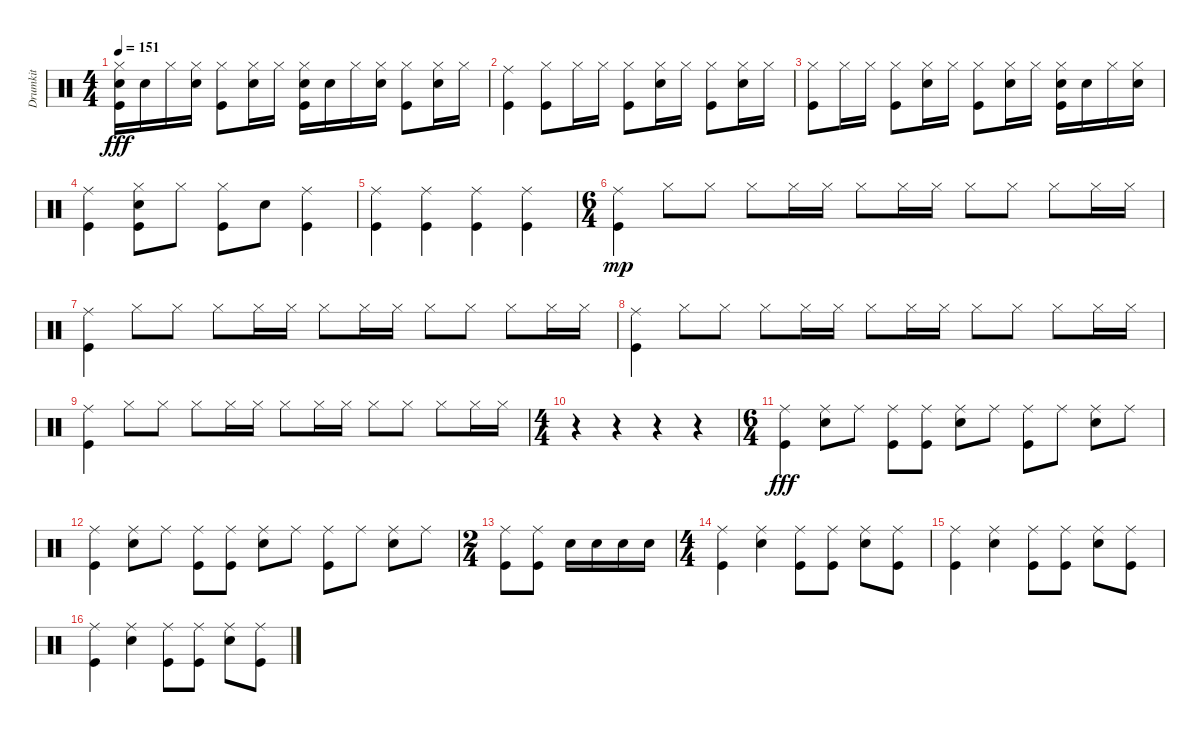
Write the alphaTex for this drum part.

\track ("Drumkit" "Drumkit") {instrument percussion}
\staff {score}
\articulation defaults
\ts (4 4)
\tempo 151
\clef neutral
\ks c
("Hi-Hat (closed)" "Kick (hit)" "Snare (hit) 2").16{dy fff} "Snare (hit) 2".16 "Hi-Hat (closed)".16 ("Hi-Hat (closed)" "Snare (hit) 2").16 ("Hi-Hat (closed)" "Kick (hit)").8 ("Snare (hit) 2" "Hi-Hat (closed)").16 "Hi-Hat (closed)".16 ("Hi-Hat (closed)" "Kick (hit)" "Snare (hit) 2").16 "Snare (hit) 2".16 "Hi-Hat (closed)".16 ("Hi-Hat (closed)" "Snare (hit) 2").16 ("Hi-Hat (closed)" "Kick (hit)").8 ("Snare (hit) 2" "Hi-Hat (closed)").16 "Hi-Hat (closed)".16 |
("Kick (hit)" "Ride (middle)").4 ("Hi-Hat (closed)" "Kick (hit)").8 "Hi-Hat (closed)".16 "Hi-Hat (closed)".16 ("Hi-Hat (closed)" "Kick (hit)").8 ("Snare (hit) 2" "Hi-Hat (closed)").16 "Hi-Hat (closed)".16 ("Hi-Hat (closed)" "Kick (hit)").8 ("Snare (hit) 2" "Hi-Hat (closed)").16 "Hi-Hat (closed)".16 |
("Hi-Hat (closed)" "Kick (hit)").8 "Hi-Hat (closed)".16 "Hi-Hat (closed)".16 ("Hi-Hat (closed)" "Kick (hit)").8 ("Snare (hit) 2" "Hi-Hat (closed)").16 "Hi-Hat (closed)".16 ("Hi-Hat (closed)" "Kick (hit)").8 ("Snare (hit) 2" "Hi-Hat (closed)").16 "Hi-Hat (closed)".16 ("Hi-Hat (closed)" "Kick (hit)" "Snare (hit) 2").16 "Snare (hit) 2".16 "Hi-Hat (closed)".16 ("Hi-Hat (closed)" "Snare (hit) 2").16 |
("Ride (middle)" "Kick (hit)").4 ("Hi-Hat (closed)" "Snare (hit) 2" "Kick (hit)").8 "Hi-Hat (closed)".8 ("Kick (hit)" "Hi-Hat (closed)").8 "Snare (hit) 2".8 ("Ride (middle)" "Kick (hit)").4 |
("Kick (hit)" "Ride (middle)").4 ("Kick (hit)" "Ride (middle)").4 ("Kick (hit)" "Ride (middle)").4 ("Kick (hit)" "Ride (middle)").4 |
\ts (6 4)
("Kick (hit)" "Ride (middle)").4{dy mp} "Hi-Hat (closed)".8 "Hi-Hat (closed)".8 "Hi-Hat (closed)".8 "Hi-Hat (closed)".16 "Hi-Hat (closed)".16 "Hi-Hat (closed)".8 "Hi-Hat (closed)".16 "Hi-Hat (closed)".16 "Hi-Hat (closed)".8 "Hi-Hat (closed)".8 "Hi-Hat (closed)".8 "Hi-Hat (closed)".16 "Hi-Hat (closed)".16 |
("Kick (hit)" "Ride (middle)").4 "Hi-Hat (closed)".8 "Hi-Hat (closed)".8 "Hi-Hat (closed)".8 "Hi-Hat (closed)".16 "Hi-Hat (closed)".16 "Hi-Hat (closed)".8 "Hi-Hat (closed)".16 "Hi-Hat (closed)".16 "Hi-Hat (closed)".8 "Hi-Hat (closed)".8 "Hi-Hat (closed)".8 "Hi-Hat (closed)".16 "Hi-Hat (closed)".16 |
("Kick (hit)" "Ride (middle)").4 "Hi-Hat (closed)".8 "Hi-Hat (closed)".8 "Hi-Hat (closed)".8 "Hi-Hat (closed)".16 "Hi-Hat (closed)".16 "Hi-Hat (closed)".8 "Hi-Hat (closed)".16 "Hi-Hat (closed)".16 "Hi-Hat (closed)".8 "Hi-Hat (closed)".8 "Hi-Hat (closed)".8 "Hi-Hat (closed)".16 "Hi-Hat (closed)".16 |
("Kick (hit)" "Ride (middle)").4 "Hi-Hat (closed)".8 "Hi-Hat (closed)".8 "Hi-Hat (closed)".8 "Hi-Hat (closed)".16 "Hi-Hat (closed)".16 "Hi-Hat (closed)".8 "Hi-Hat (closed)".16 "Hi-Hat (closed)".16 "Hi-Hat (closed)".8 "Hi-Hat (closed)".8 "Hi-Hat (closed)".8 "Hi-Hat (closed)".16 "Hi-Hat (closed)".16 |
\ts (4 4)
r.4 r.4 r.4 r.4 |
\ts (6 4)
("Kick (hit)" "Ride (middle)").4{dy fff} ("Snare (hit) 2" "Ride (middle)").8 "Ride (middle)".8 ("Kick (hit)" "Ride (middle)").8 ("Kick (hit)" "Ride (middle)").8 ("Snare (hit) 2" "Ride (middle)").8 "Ride (middle)".8 ("Kick (hit)" "Ride (middle)").8 "Ride (middle)".8 ("Snare (hit) 2" "Ride (middle)").8 "Ride (middle)".8 |
("Kick (hit)" "Ride (middle)").4 ("Snare (hit) 2" "Ride (middle)").8 "Ride (middle)".8 ("Kick (hit)" "Ride (middle)").8 ("Kick (hit)" "Ride (middle)").8 ("Snare (hit) 2" "Ride (middle)").8 "Ride (middle)".8 ("Kick (hit)" "Ride (middle)").8 "Ride (middle)".8 ("Snare (hit) 2" "Ride (middle)").8 "Ride (middle)".8 |
\ts (2 4)
("Kick (hit)" "Ride (middle)").8 ("Kick (hit)" "Ride (middle)").8 "Snare (hit) 2".16 "Snare (hit) 2".16 "Snare (hit) 2".16 "Snare (hit) 2".16 |
\ts (4 4)
("Ride (middle)" "Kick (hit)").4 ("Ride (middle)" "Snare (hit) 2").4 ("Kick (hit)" "Ride (middle)").8 ("Kick (hit)" "Ride (middle)").8 ("Snare (hit) 2" "Ride (middle)").8 ("Kick (hit)" "Ride (middle)").8 |
("Ride (middle)" "Kick (hit)").4 ("Ride (middle)" "Snare (hit) 2").4 ("Kick (hit)" "Ride (middle)").8 ("Kick (hit)" "Ride (middle)").8 ("Snare (hit) 2" "Ride (middle)").8 ("Kick (hit)" "Ride (middle)").8 |
("Ride (middle)" "Kick (hit)").4 ("Ride (middle)" "Snare (hit) 2").4 ("Kick (hit)" "Ride (middle)").8 ("Kick (hit)" "Ride (middle)").8 ("Snare (hit) 2" "Ride (middle)").8 ("Kick (hit)" "Ride (middle)").8
